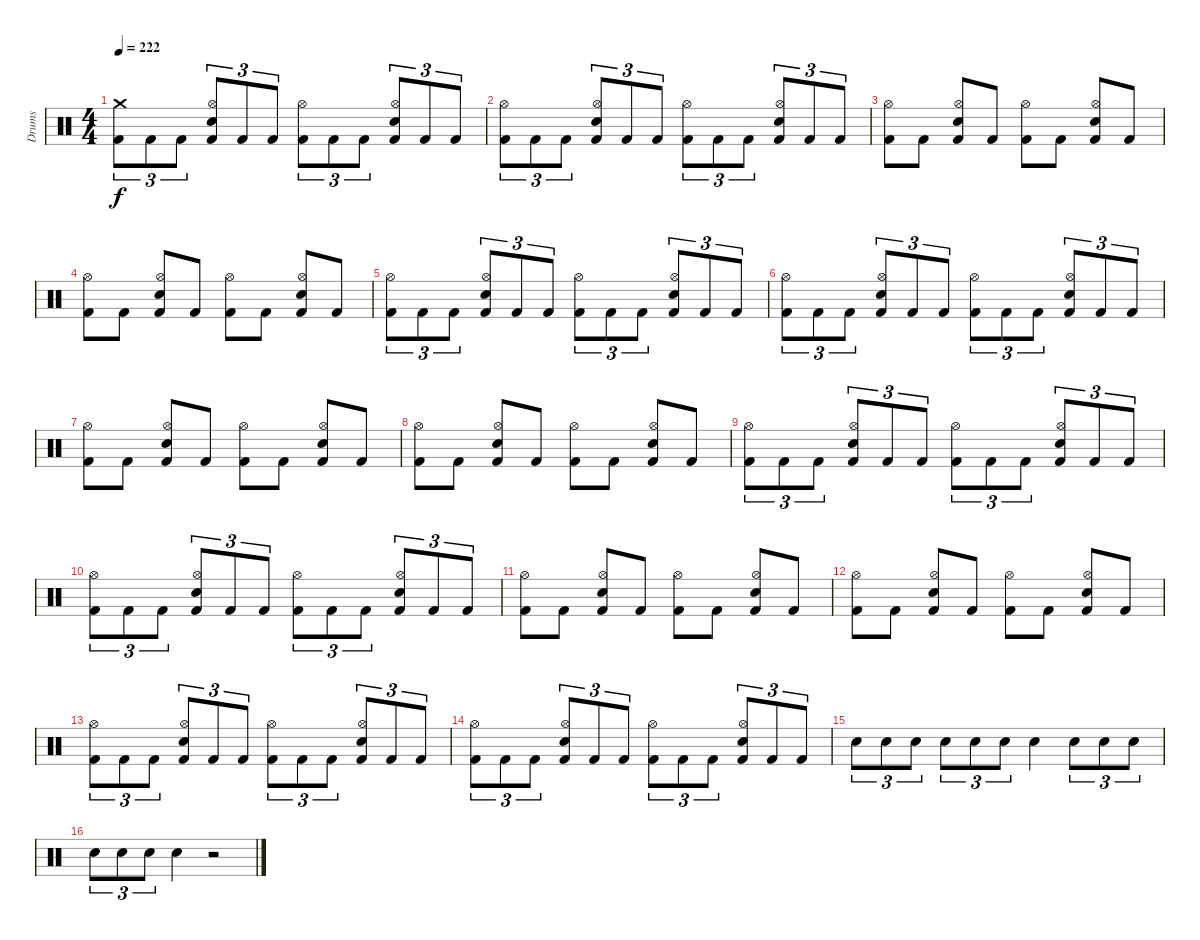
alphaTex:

\track ("Drums" "Drums") {instrument percussion}
\staff {score}
\articulation defaults
\ts (4 4)
\tempo 222
\clef neutral
\ks c
("Crash medium (hit)" "Kick (hit) 2").8{tu (3 2) dy f} "Kick (hit) 2".8{tu (3 2)} "Kick (hit) 2".8{tu (3 2)} ("Hi-Hat (open)" "Electric Snare (hit)" "Kick (hit) 2").8{tu (3 2)} "Kick (hit) 2".8{tu (3 2)} "Kick (hit) 2".8{tu (3 2)} ("Hi-Hat (open)" "Kick (hit) 2").8{tu (3 2)} "Kick (hit) 2".8{tu (3 2)} "Kick (hit) 2".8{tu (3 2)} ("Hi-Hat (open)" "Electric Snare (hit)" "Kick (hit) 2").8{tu (3 2)} "Kick (hit) 2".8{tu (3 2)} "Kick (hit) 2".8{tu (3 2)} |
("Hi-Hat (open)" "Kick (hit) 2").8{tu (3 2)} "Kick (hit) 2".8{tu (3 2)} "Kick (hit) 2".8{tu (3 2)} ("Hi-Hat (open)" "Electric Snare (hit)" "Kick (hit) 2").8{tu (3 2)} "Kick (hit) 2".8{tu (3 2)} "Kick (hit) 2".8{tu (3 2)} ("Hi-Hat (open)" "Kick (hit) 2").8{tu (3 2)} "Kick (hit) 2".8{tu (3 2)} "Kick (hit) 2".8{tu (3 2)} ("Hi-Hat (open)" "Electric Snare (hit)" "Kick (hit) 2").8{tu (3 2)} "Kick (hit) 2".8{tu (3 2)} "Kick (hit) 2".8{tu (3 2)} |
("Hi-Hat (open)" "Kick (hit) 2").8 "Kick (hit) 2".8 ("Hi-Hat (open)" "Electric Snare (hit)" "Kick (hit) 2").8 "Kick (hit) 2".8 ("Hi-Hat (open)" "Kick (hit) 2").8 "Kick (hit) 2".8 ("Hi-Hat (open)" "Electric Snare (hit)" "Kick (hit) 2").8 "Kick (hit) 2".8 |
("Hi-Hat (open)" "Kick (hit) 2").8 "Kick (hit) 2".8 ("Hi-Hat (open)" "Electric Snare (hit)" "Kick (hit) 2").8 "Kick (hit) 2".8 ("Hi-Hat (open)" "Kick (hit) 2").8 "Kick (hit) 2".8 ("Hi-Hat (open)" "Electric Snare (hit)" "Kick (hit) 2").8 "Kick (hit) 2".8 |
("Hi-Hat (open)" "Kick (hit) 2").8{tu (3 2)} "Kick (hit) 2".8{tu (3 2)} "Kick (hit) 2".8{tu (3 2)} ("Hi-Hat (open)" "Electric Snare (hit)" "Kick (hit) 2").8{tu (3 2)} "Kick (hit) 2".8{tu (3 2)} "Kick (hit) 2".8{tu (3 2)} ("Hi-Hat (open)" "Kick (hit) 2").8{tu (3 2)} "Kick (hit) 2".8{tu (3 2)} "Kick (hit) 2".8{tu (3 2)} ("Hi-Hat (open)" "Electric Snare (hit)" "Kick (hit) 2").8{tu (3 2)} "Kick (hit) 2".8{tu (3 2)} "Kick (hit) 2".8{tu (3 2)} |
("Hi-Hat (open)" "Kick (hit) 2").8{tu (3 2)} "Kick (hit) 2".8{tu (3 2)} "Kick (hit) 2".8{tu (3 2)} ("Hi-Hat (open)" "Electric Snare (hit)" "Kick (hit) 2").8{tu (3 2)} "Kick (hit) 2".8{tu (3 2)} "Kick (hit) 2".8{tu (3 2)} ("Hi-Hat (open)" "Kick (hit) 2").8{tu (3 2)} "Kick (hit) 2".8{tu (3 2)} "Kick (hit) 2".8{tu (3 2)} ("Hi-Hat (open)" "Electric Snare (hit)" "Kick (hit) 2").8{tu (3 2)} "Kick (hit) 2".8{tu (3 2)} "Kick (hit) 2".8{tu (3 2)} |
("Hi-Hat (open)" "Kick (hit) 2").8 "Kick (hit) 2".8 ("Hi-Hat (open)" "Electric Snare (hit)" "Kick (hit) 2").8 "Kick (hit) 2".8 ("Hi-Hat (open)" "Kick (hit) 2").8 "Kick (hit) 2".8 ("Hi-Hat (open)" "Electric Snare (hit)" "Kick (hit) 2").8 "Kick (hit) 2".8 |
("Hi-Hat (open)" "Kick (hit) 2").8 "Kick (hit) 2".8 ("Hi-Hat (open)" "Electric Snare (hit)" "Kick (hit) 2").8 "Kick (hit) 2".8 ("Hi-Hat (open)" "Kick (hit) 2").8 "Kick (hit) 2".8 ("Hi-Hat (open)" "Electric Snare (hit)" "Kick (hit) 2").8 "Kick (hit) 2".8 |
("Hi-Hat (open)" "Kick (hit) 2").8{tu (3 2)} "Kick (hit) 2".8{tu (3 2)} "Kick (hit) 2".8{tu (3 2)} ("Hi-Hat (open)" "Electric Snare (hit)" "Kick (hit) 2").8{tu (3 2)} "Kick (hit) 2".8{tu (3 2)} "Kick (hit) 2".8{tu (3 2)} ("Hi-Hat (open)" "Kick (hit) 2").8{tu (3 2)} "Kick (hit) 2".8{tu (3 2)} "Kick (hit) 2".8{tu (3 2)} ("Hi-Hat (open)" "Electric Snare (hit)" "Kick (hit) 2").8{tu (3 2)} "Kick (hit) 2".8{tu (3 2)} "Kick (hit) 2".8{tu (3 2)} |
("Hi-Hat (open)" "Kick (hit) 2").8{tu (3 2)} "Kick (hit) 2".8{tu (3 2)} "Kick (hit) 2".8{tu (3 2)} ("Hi-Hat (open)" "Electric Snare (hit)" "Kick (hit) 2").8{tu (3 2)} "Kick (hit) 2".8{tu (3 2)} "Kick (hit) 2".8{tu (3 2)} ("Hi-Hat (open)" "Kick (hit) 2").8{tu (3 2)} "Kick (hit) 2".8{tu (3 2)} "Kick (hit) 2".8{tu (3 2)} ("Hi-Hat (open)" "Electric Snare (hit)" "Kick (hit) 2").8{tu (3 2)} "Kick (hit) 2".8{tu (3 2)} "Kick (hit) 2".8{tu (3 2)} |
("Hi-Hat (open)" "Kick (hit) 2").8 "Kick (hit) 2".8 ("Hi-Hat (open)" "Electric Snare (hit)" "Kick (hit) 2").8 "Kick (hit) 2".8 ("Hi-Hat (open)" "Kick (hit) 2").8 "Kick (hit) 2".8 ("Hi-Hat (open)" "Electric Snare (hit)" "Kick (hit) 2").8 "Kick (hit) 2".8 |
("Hi-Hat (open)" "Kick (hit) 2").8 "Kick (hit) 2".8 ("Hi-Hat (open)" "Electric Snare (hit)" "Kick (hit) 2").8 "Kick (hit) 2".8 ("Hi-Hat (open)" "Kick (hit) 2").8 "Kick (hit) 2".8 ("Hi-Hat (open)" "Electric Snare (hit)" "Kick (hit) 2").8 "Kick (hit) 2".8 |
("Hi-Hat (open)" "Kick (hit) 2").8{tu (3 2)} "Kick (hit) 2".8{tu (3 2)} "Kick (hit) 2".8{tu (3 2)} ("Hi-Hat (open)" "Electric Snare (hit)" "Kick (hit) 2").8{tu (3 2)} "Kick (hit) 2".8{tu (3 2)} "Kick (hit) 2".8{tu (3 2)} ("Hi-Hat (open)" "Kick (hit) 2").8{tu (3 2)} "Kick (hit) 2".8{tu (3 2)} "Kick (hit) 2".8{tu (3 2)} ("Hi-Hat (open)" "Electric Snare (hit)" "Kick (hit) 2").8{tu (3 2)} "Kick (hit) 2".8{tu (3 2)} "Kick (hit) 2".8{tu (3 2)} |
("Hi-Hat (open)" "Kick (hit) 2").8{tu (3 2)} "Kick (hit) 2".8{tu (3 2)} "Kick (hit) 2".8{tu (3 2)} ("Hi-Hat (open)" "Electric Snare (hit)" "Kick (hit) 2").8{tu (3 2)} "Kick (hit) 2".8{tu (3 2)} "Kick (hit) 2".8{tu (3 2)} ("Hi-Hat (open)" "Kick (hit) 2").8{tu (3 2)} "Kick (hit) 2".8{tu (3 2)} "Kick (hit) 2".8{tu (3 2)} ("Hi-Hat (open)" "Electric Snare (hit)" "Kick (hit) 2").8{tu (3 2)} "Kick (hit) 2".8{tu (3 2)} "Kick (hit) 2".8{tu (3 2)} |
"Electric Snare (hit)".8{tu (3 2)} "Electric Snare (hit)".8{tu (3 2)} "Electric Snare (hit)".8{tu (3 2)} "Electric Snare (hit)".8{tu (3 2)} "Electric Snare (hit)".8{tu (3 2)} "Electric Snare (hit)".8{tu (3 2)} "Electric Snare (hit)".4 "Electric Snare (hit)".8{tu (3 2)} "Electric Snare (hit)".8{tu (3 2)} "Electric Snare (hit)".8{tu (3 2)} |
"Electric Snare (hit)".8{tu (3 2)} "Electric Snare (hit)".8{tu (3 2)} "Electric Snare (hit)".8{tu (3 2)} "Electric Snare (hit)".4 r.2
